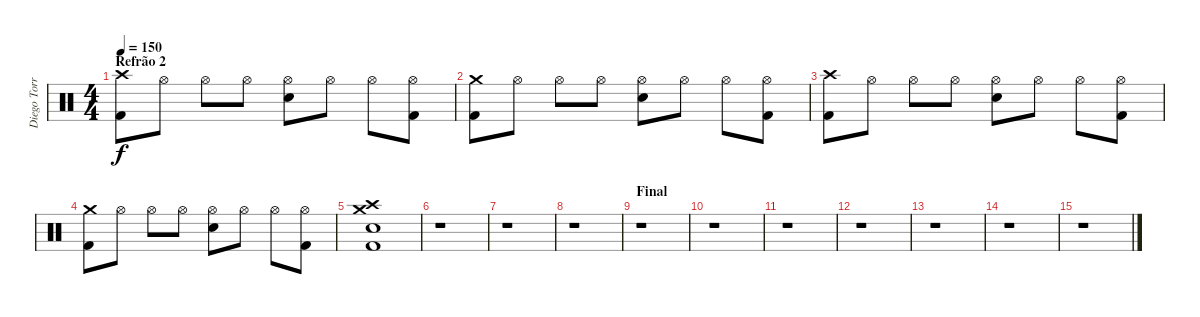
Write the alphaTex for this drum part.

\track ("Diego Torres [Bateria]" "Diego Torr") {instrument percussion}
\staff {score}
\articulation defaults
\ts (4 4)
\section ("" "Refrão 2")
\tempo 150
\clef neutral
\ks c
("Crash high (hit)" "Kick (hit) 2").8{dy f} "Hi-Hat (open)".8 "Hi-Hat (open)".8 "Hi-Hat (open)".8 ("Hi-Hat (open)" "Electric Snare (hit)").8 "Hi-Hat (open)".8 "Hi-Hat (open)".8 ("Hi-Hat (open)" "Kick (hit) 2").8 |
("Crash medium (hit)" "Kick (hit) 2").8 "Hi-Hat (open)".8 "Hi-Hat (open)".8 "Hi-Hat (open)".8 ("Hi-Hat (open)" "Electric Snare (hit)").8 "Hi-Hat (open)".8 "Hi-Hat (open)".8 ("Hi-Hat (open)" "Kick (hit) 2").8 |
("Crash high (hit)" "Kick (hit) 2").8 "Hi-Hat (open)".8 "Hi-Hat (open)".8 "Hi-Hat (open)".8 ("Hi-Hat (open)" "Electric Snare (hit)").8 "Hi-Hat (open)".8 "Hi-Hat (open)".8 ("Hi-Hat (open)" "Kick (hit) 2").8 |
("Crash medium (hit)" "Kick (hit) 2").8 "Hi-Hat (open)".8 "Hi-Hat (open)".8 "Hi-Hat (open)".8 ("Hi-Hat (open)" "Electric Snare (hit)").8 "Hi-Hat (open)".8 "Hi-Hat (open)".8 ("Hi-Hat (open)" "Kick (hit) 2").8 |
("Crash high (hit)" "Crash medium (hit)" "Electric Snare (hit)" "Kick (hit) 2").1 |
r.1 |
r.1 |
r.1 |
\section ("" "Final")
r.1 |
r.1 |
r.1 |
r.1 |
r.1 |
r.1 |
r.1
